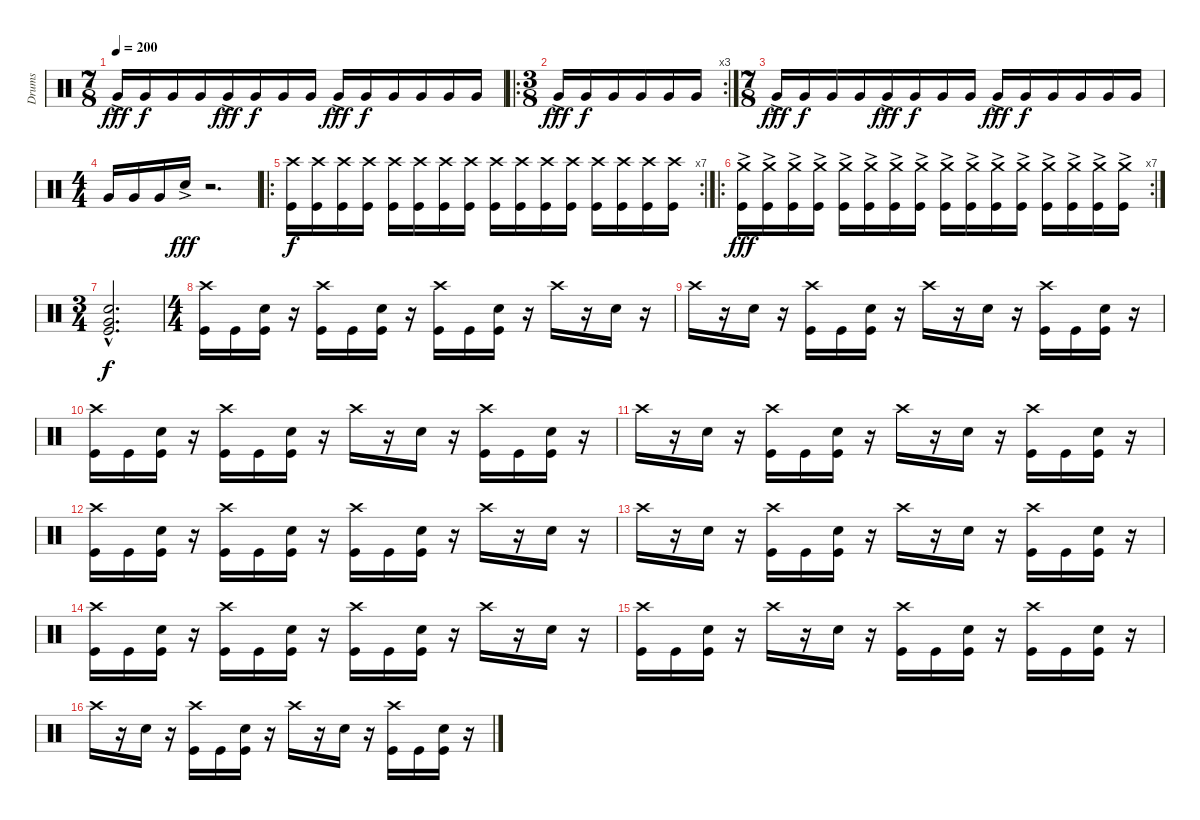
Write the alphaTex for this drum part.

\track ("Drums" "Drums") {instrument percussion}
\staff {score}
\articulation defaults
\ts (7 8)
\tempo 200
\clef neutral
\ks c "Very Low Tom (hit)"{ac}.16{dy fff} "Very Low Tom (hit)".16{dy f} "Very Low Tom (hit)".16 "Very Low Tom (hit)".16 "Very Low Tom (hit)"{ac}.16{dy fff} "Very Low Tom (hit)".16{dy f} "Very Low Tom (hit)".16 "Very Low Tom (hit)".16 "Very Low Tom (hit)"{ac}.16{dy fff} "Very Low Tom (hit)".16{dy f} "Very Low Tom (hit)".16 "Very Low Tom (hit)".16 "Very Low Tom (hit)".16 "Very Low Tom (hit)".16
|
\ro
\rc 3
\ts (3 8)
"Very Low Tom (hit)"{ac}.16{dy fff} "Very Low Tom (hit)".16{dy f} "Very Low Tom (hit)".16 "Very Low Tom (hit)".16 "Very Low Tom (hit)".16 "Very Low Tom (hit)".16 |
\ts (7 8)
"Very Low Tom (hit)"{ac}.16{dy fff} "Very Low Tom (hit)".16{dy f} "Very Low Tom (hit)".16 "Very Low Tom (hit)".16 "Very Low Tom (hit)"{ac}.16{dy fff} "Very Low Tom (hit)".16{dy f} "Very Low Tom (hit)".16 "Very Low Tom (hit)".16 "Very Low Tom (hit)"{ac}.16{dy fff} "Very Low Tom (hit)".16{dy f} "Very Low Tom (hit)".16 "Very Low Tom (hit)".16 "Very Low Tom (hit)".16 "Very Low Tom (hit)".16 |
\ts (4 4)
"Very Low Tom (hit)".16 "Very Low Tom (hit)".16 "Very Low Tom (hit)".16 "Snare (hit) 2"{ac}.16{dy fff} r.2{d} |
\ro
\rc 7
("Crash high (hit)" "Kick (hit)").16{dy f} ("Crash high (hit)" "Kick (hit)").16 ("Crash high (hit)" "Kick (hit)").16 ("Crash high (hit)" "Kick (hit)").16 ("Crash high (hit)" "Kick (hit)").16 ("Crash high (hit)" "Kick (hit)").16 ("Crash high (hit)" "Kick (hit)").16 ("Crash high (hit)" "Kick (hit)").16 ("Crash high (hit)" "Kick (hit)").16 ("Crash high (hit)" "Kick (hit)").16 ("Crash high (hit)" "Kick (hit)").16 ("Crash high (hit)" "Kick (hit)").16 ("Crash high (hit)" "Kick (hit)").16 ("Crash high (hit)" "Kick (hit)").16 ("Crash high (hit)" "Kick (hit)").16 ("Crash high (hit)" "Kick (hit)").16 |
\ro
\rc 7
("Crash medium (hit)" "Kick (hit)"{ac}).16{dy fff} ("Crash medium (hit)" "Kick (hit)"{ac}).16 ("Crash medium (hit)" "Kick (hit)"{ac}).16 ("Crash medium (hit)" "Kick (hit)"{ac}).16 ("Crash medium (hit)" "Kick (hit)"{ac}).16 ("Crash medium (hit)" "Kick (hit)"{ac}).16 ("Crash medium (hit)" "Kick (hit)"{ac}).16 ("Crash medium (hit)" "Kick (hit)"{ac}).16 ("Crash medium (hit)" "Kick (hit)"{ac}).16 ("Crash medium (hit)" "Kick (hit)"{ac}).16 ("Crash medium (hit)" "Kick (hit)"{ac}).16 ("Crash medium (hit)" "Kick (hit)"{ac}).16 ("Crash medium (hit)" "Kick (hit)"{ac}).16 ("Crash medium (hit)" "Kick (hit)"{ac}).16 ("Crash medium (hit)" "Kick (hit)"{ac}).16 ("Crash medium (hit)" "Kick (hit)"{ac}).16 |
\ts (3 4)
("Very Low Tom (hit)"{hac} "Snare (hit) 2"{hac} "Kick (hit)"{hac}).2{d dy f} |
\ts (4 4)
("Crash high (hit)" "Kick (hit)").16 "Kick (hit)".16 ("Snare (hit) 2" "Kick (hit)").16 r.16 ("Crash high (hit)" "Kick (hit)").16 "Kick (hit)".16 ("Snare (hit) 2" "Kick (hit)").16 r.16 ("Crash high (hit)" "Kick (hit)").16 "Kick (hit)".16 ("Snare (hit) 2" "Kick (hit)").16 r.16 "Crash high (hit)".16 r.16 "Snare (hit) 2".16 r.16 |
"Crash high (hit)".16 r.16 "Snare (hit) 2".16 r.16 ("Crash high (hit)" "Kick (hit)").16 "Kick (hit)".16 ("Snare (hit) 2" "Kick (hit)").16 r.16 "Crash high (hit)".16 r.16 "Snare (hit) 2".16 r.16 ("Crash high (hit)" "Kick (hit)").16 "Kick (hit)".16 ("Snare (hit) 2" "Kick (hit)").16 r.16 |
("Crash high (hit)" "Kick (hit)").16 "Kick (hit)".16 ("Snare (hit) 2" "Kick (hit)").16 r.16 ("Crash high (hit)" "Kick (hit)").16 "Kick (hit)".16 ("Snare (hit) 2" "Kick (hit)").16 r.16 "Crash high (hit)".16 r.16 "Snare (hit) 2".16 r.16 ("Crash high (hit)" "Kick (hit)").16 "Kick (hit)".16 ("Snare (hit) 2" "Kick (hit)").16 r.16 |
"Crash high (hit)".16 r.16 "Snare (hit) 2".16 r.16 ("Crash high (hit)" "Kick (hit)").16 "Kick (hit)".16 ("Snare (hit) 2" "Kick (hit)").16 r.16 "Crash high (hit)".16 r.16 "Snare (hit) 2".16 r.16 ("Crash high (hit)" "Kick (hit)").16 "Kick (hit)".16 ("Snare (hit) 2" "Kick (hit)").16 r.16 |
("Crash high (hit)" "Kick (hit)").16 "Kick (hit)".16 ("Snare (hit) 2" "Kick (hit)").16 r.16 ("Crash high (hit)" "Kick (hit)").16 "Kick (hit)".16 ("Snare (hit) 2" "Kick (hit)").16 r.16 ("Crash high (hit)" "Kick (hit)").16 "Kick (hit)".16 ("Snare (hit) 2" "Kick (hit)").16 r.16 "Crash high (hit)".16 r.16 "Snare (hit) 2".16 r.16 |
"Crash high (hit)".16 r.16 "Snare (hit) 2".16 r.16 ("Crash high (hit)" "Kick (hit)").16 "Kick (hit)".16 ("Snare (hit) 2" "Kick (hit)").16 r.16 "Crash high (hit)".16 r.16 "Snare (hit) 2".16 r.16 ("Crash high (hit)" "Kick (hit)").16 "Kick (hit)".16 ("Snare (hit) 2" "Kick (hit)").16 r.16 |
("Crash high (hit)" "Kick (hit)").16 "Kick (hit)".16 ("Snare (hit) 2" "Kick (hit)").16 r.16 ("Crash high (hit)" "Kick (hit)").16 "Kick (hit)".16 ("Snare (hit) 2" "Kick (hit)").16 r.16 ("Crash high (hit)" "Kick (hit)").16 "Kick (hit)".16 ("Snare (hit) 2" "Kick (hit)").16 r.16 "Crash high (hit)".16 r.16 "Snare (hit) 2".16 r.16 |
("Crash high (hit)" "Kick (hit)").16 "Kick (hit)".16 ("Snare (hit) 2" "Kick (hit)").16 r.16 "Crash high (hit)".16 r.16 "Snare (hit) 2".16 r.16 ("Crash high (hit)" "Kick (hit)").16 "Kick (hit)".16 ("Snare (hit) 2" "Kick (hit)").16 r.16 ("Crash high (hit)" "Kick (hit)").16 "Kick (hit)".16 ("Snare (hit) 2" "Kick (hit)").16 r.16 |
"Crash high (hit)".16 r.16 "Snare (hit) 2".16 r.16 ("Crash high (hit)" "Kick (hit)").16 "Kick (hit)".16 ("Snare (hit) 2" "Kick (hit)").16 r.16 "Crash high (hit)".16 r.16 "Snare (hit) 2".16 r.16 ("Crash high (hit)" "Kick (hit)").16 "Kick (hit)".16 ("Snare (hit) 2" "Kick (hit)").16 r.16
